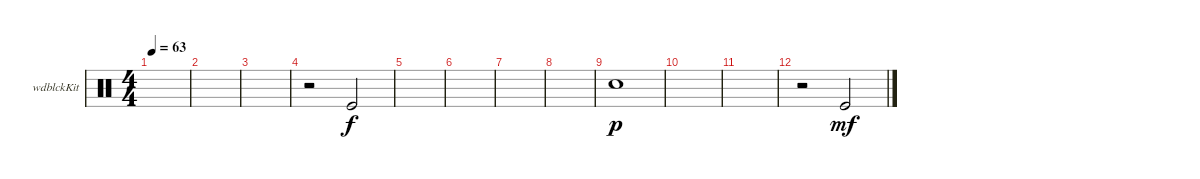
\defaultSystemsLayout 4
\bracketExtendMode groupsimilarinstruments
\firstSystemTrackNameOrientation horizontal
\otherSystemsTrackNameOrientation horizontal
\track ("Woodblock" "wdblckKit") {instrument percussion}
\staff {score}
\articulation defaults
\ts (4 4)
\tempo 63
\clef neutral
\ks c
|
|
|
r.2 "Kick (hit)".2 |
|
|
|
|
"Snare (hit) 2".1{dy p} |
|
|
r.2 "Kick (hit)".2{dy mf}
